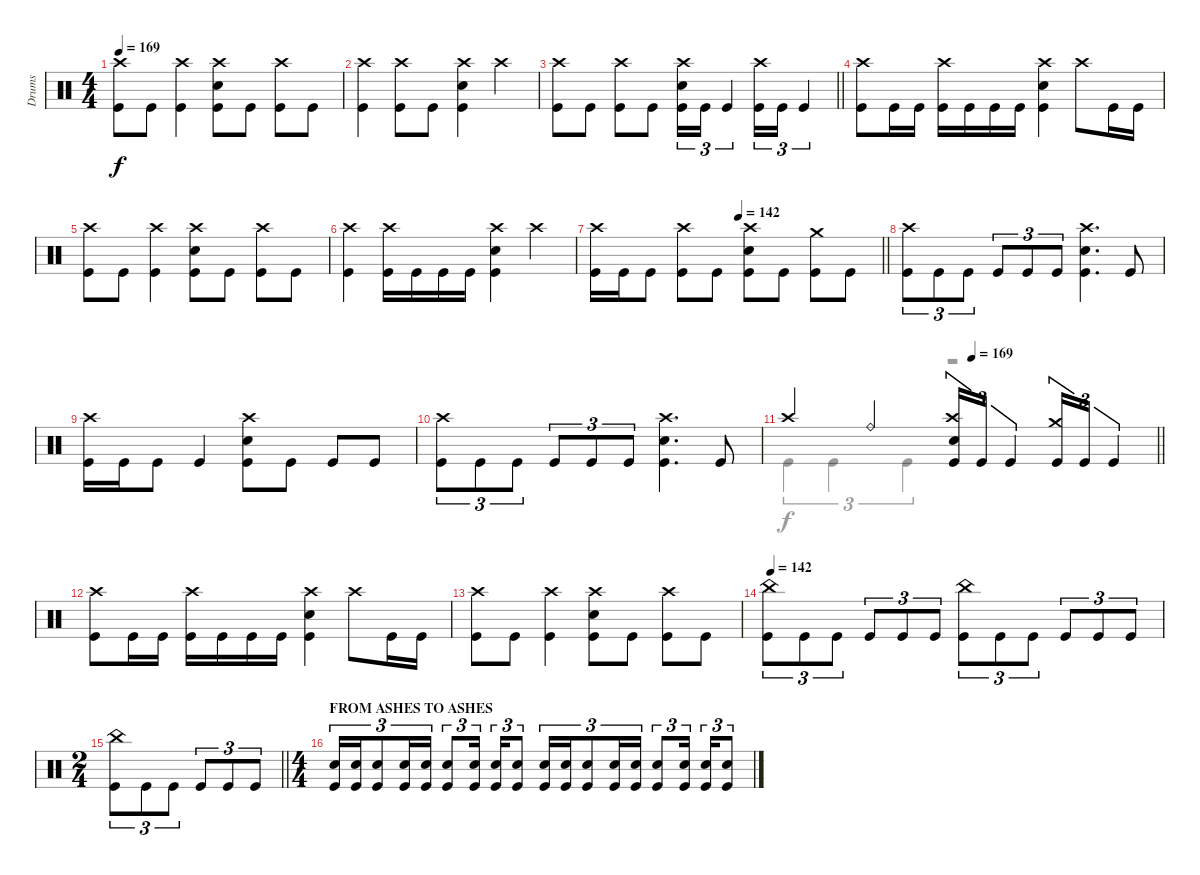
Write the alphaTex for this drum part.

\track ("Drums" "Drums") {instrument percussion}
\staff
\articulation defaults
\voice
\ts (4 4)
\tempo 169
\clef neutral
\ks c
("Crash high (hit)" "Kick (hit)").8{dy f} "Kick (hit)".8 ("Crash high (hit)" "Kick (hit)").4 ("Crash high (hit)" "Electric Snare (hit)" "Kick (hit)").8 "Kick (hit)".8 ("Crash high (hit)" "Kick (hit)").8 "Kick (hit)".8 |
("Crash high (hit)" "Kick (hit)").4 ("Crash high (hit)" "Kick (hit)").8 "Kick (hit)".8 ("Crash high (hit)" "Electric Snare (hit)" "Kick (hit)").4 "Crash high (hit)".4 |
\barLineRight lightlight
("Crash high (hit)" "Kick (hit)").8 "Kick (hit)".8 ("Crash high (hit)" "Kick (hit)").8 "Kick (hit)".8 ("Crash high (hit)" "Electric Snare (hit)" "Kick (hit)").16{tu (3 2)} "Kick (hit)".16{tu (3 2)} "Kick (hit)".4{tu (3 2)} ("Crash high (hit)" "Kick (hit)").16{tu (3 2)} "Kick (hit)".16{tu (3 2)} "Kick (hit)".4{tu (3 2)} |
("Crash high (hit)" "Kick (hit)").8 "Kick (hit)".16 "Kick (hit)".16 ("Crash high (hit)" "Kick (hit)").16 "Kick (hit)".16 "Kick (hit)".16 "Kick (hit)".16 ("Crash high (hit)" "Electric Snare (hit)" "Kick (hit)").4 "Crash high (hit)".8 "Kick (hit)".16 "Kick (hit)".16 |
("Crash high (hit)" "Kick (hit)").8 "Kick (hit)".8 ("Crash high (hit)" "Kick (hit)").4 ("Crash high (hit)" "Electric Snare (hit)" "Kick (hit)").8 "Kick (hit)".8 ("Crash high (hit)" "Kick (hit)").8 "Kick (hit)".8 |
("Crash high (hit)" "Kick (hit)").4 ("Crash high (hit)" "Kick (hit)").16 "Kick (hit)".16 "Kick (hit)".16 "Kick (hit)".16 ("Crash high (hit)" "Electric Snare (hit)" "Kick (hit)").4 "Crash high (hit)".4 |
\tempo (142 0.5)
\barLineRight lightlight
("Crash high (hit)" "Kick (hit)").16 "Kick (hit)".16 "Kick (hit)".8 ("Crash high (hit)" "Kick (hit)").8 "Kick (hit)".8 ("Crash high (hit)" "Electric Snare (hit)" "Kick (hit)").8 "Kick (hit)".8 ("Crash medium (hit)" "Kick (hit)").8 "Kick (hit)".8 |
("Crash high (hit)" "Kick (hit)").8{tu (3 2)} "Kick (hit)".8{tu (3 2)} "Kick (hit)".8{tu (3 2)} "Kick (hit)".8{tu (3 2)} "Kick (hit)".8{tu (3 2)} "Kick (hit)".8{tu (3 2)} ("Crash high (hit)" "Electric Snare (hit)" "Kick (hit)").4{d} "Kick (hit)".8 |
("Crash high (hit)" "Kick (hit)").16 "Kick (hit)".16 "Kick (hit)".8 "Kick (hit)".4 ("Crash high (hit)" "Electric Snare (hit)" "Kick (hit)").8 "Kick (hit)".8 "Kick (hit)".8 "Kick (hit)".8 |
("Crash high (hit)" "Kick (hit)").8{tu (3 2)} "Kick (hit)".8{tu (3 2)} "Kick (hit)".8{tu (3 2)} "Kick (hit)".8{tu (3 2)} "Kick (hit)".8{tu (3 2)} "Kick (hit)".8{tu (3 2)} ("Crash high (hit)" "Electric Snare (hit)" "Kick (hit)").4{d} "Kick (hit)".8 |
\tempo (169 0.5)
\barLineRight lightlight "Crash high (hit)".4 "Ride (bell)".4
("Crash high (hit)" "Electric Snare (hit)" "Kick (hit)").16{tu (3 2)} "Kick (hit)".16{tu (3 2)} "Kick (hit)".4{tu (3 2)} ("Crash medium (hit)" "Kick (hit)").16{tu (3 2)} "Kick (hit)".16{tu (3 2)} "Kick (hit)".4{tu (3 2)} |
("Crash high (hit)" "Kick (hit)").8 "Kick (hit)".16 "Kick (hit)".16 ("Crash high (hit)" "Kick (hit)").16 "Kick (hit)".16 "Kick (hit)".16 "Kick (hit)".16 ("Crash high (hit)" "Electric Snare (hit)" "Kick (hit)").4 "Crash high (hit)".8 "Kick (hit)".16 "Kick (hit)".16 |
("Crash high (hit)" "Kick (hit)").8 "Kick (hit)".8 ("Crash high (hit)" "Kick (hit)").4 ("Crash high (hit)" "Electric Snare (hit)" "Kick (hit)").8 "Kick (hit)".8 ("Crash high (hit)" "Kick (hit)").8 "Kick (hit)".8 |
\tempo 142
("China (hit)" "Kick (hit)").8{tu (3 2)} "Kick (hit)".8{tu (3 2)} "Kick (hit)".8{tu (3 2)} "Kick (hit)".8{tu (3 2)} "Kick (hit)".8{tu (3 2)} "Kick (hit)".8{tu (3 2)} ("China (hit)" "Kick (hit)").8{tu (3 2)} "Kick (hit)".8{tu (3 2)} "Kick (hit)".8{tu (3 2)} "Kick (hit)".8{tu (3 2)} "Kick (hit)".8{tu (3 2)} "Kick (hit)".8{tu (3 2)} |
\ts (2 4)
\barLineRight lightlight
("China (hit)" "Kick (hit)").8{tu (3 2)} "Kick (hit)".8{tu (3 2)} "Kick (hit)".8{tu (3 2)} "Kick (hit)".8{tu (3 2)} "Kick (hit)".8{tu (3 2)} "Kick (hit)".8{tu (3 2)} |
\ts (4 4)
\section ("" "FROM ASHES TO ASHES")
("Electric Snare (hit)" "Kick (hit)").16{tu (3 2)} ("Electric Snare (hit)" "Kick (hit)").16{tu (3 2)} ("Electric Snare (hit)" "Kick (hit)").8{tu (3 2)} ("Electric Snare (hit)" "Kick (hit)").16{tu (3 2)} ("Electric Snare (hit)" "Kick (hit)").16{tu (3 2)} ("Electric Snare (hit)" "Kick (hit)").8{tu (3 2)} ("Electric Snare (hit)" "Kick (hit)").16{tu (3 2) beam splitsecondary} ("Electric Snare (hit)" "Kick (hit)").16{tu (3 2)} ("Electric Snare (hit)" "Kick (hit)").8{tu (3 2)} ("Electric Snare (hit)" "Kick (hit)").16{tu (3 2)} ("Electric Snare (hit)" "Kick (hit)").16{tu (3 2)} ("Electric Snare (hit)" "Kick (hit)").8{tu (3 2)} ("Electric Snare (hit)" "Kick (hit)").16{tu (3 2)} ("Electric Snare (hit)" "Kick (hit)").16{tu (3 2)} ("Electric Snare (hit)" "Kick (hit)").8{tu (3 2)} ("Electric Snare (hit)" "Kick (hit)").16{tu (3 2) beam splitsecondary} ("Electric Snare (hit)" "Kick (hit)").16{tu (3 2)} ("Electric Snare (hit)" "Kick (hit)").8{tu (3 2)}
\voice
\clef neutral
\ottava regular
\simile none
\ks c
|
|
\barLineRight lightlight
|
|
|
|
\barLineRight lightlight
|
|
|
|
\barLineRight lightlight "Kick (hit)".4{tu (3 2)} "Kick (hit)".4{tu (3 2)} "Kick (hit)".4{tu (3 2)}
r.2 |
|
|
|
\barLineRight lightlight
|
